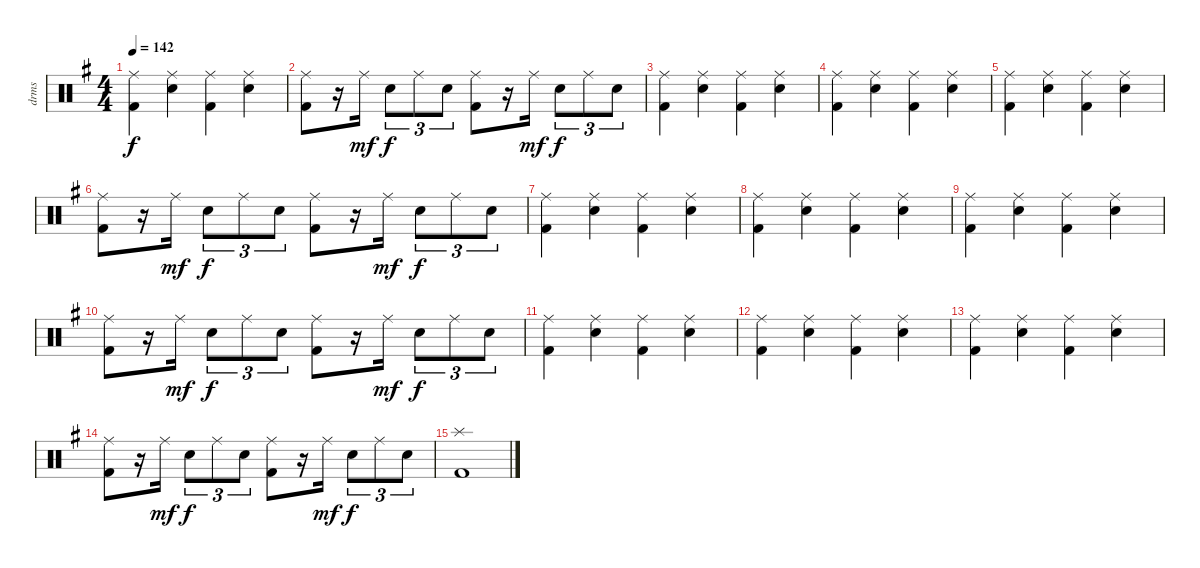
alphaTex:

\track ("drms" "drms") {instrument percussion}
\staff {score}
\articulation defaults
\ts (4 4)
\tempo 142
\clef neutral
\ks g
("Ride (middle)" "Kick (hit) 2").4{dy f} ("Ride (middle)" "Snare (hit) 2").4 ("Ride (middle)" "Kick (hit) 2").4 ("Ride (middle)" "Snare (hit) 2").4 |
("Ride (middle)" "Kick (hit) 2").8 r.16 "Ride (middle)".16{dy mf} "Snare (hit) 2".8{tu (3 2) dy f} "Ride (middle)".8{tu (3 2)} "Snare (hit) 2".8{tu (3 2)} ("Ride (middle)" "Kick (hit) 2").8 r.16 "Ride (middle)".16{dy mf} "Snare (hit) 2".8{tu (3 2) dy f} "Ride (middle)".8{tu (3 2)} "Snare (hit) 2".8{tu (3 2)} |
("Ride (middle)" "Kick (hit) 2").4 ("Ride (middle)" "Snare (hit) 2").4 ("Ride (middle)" "Kick (hit) 2").4 ("Ride (middle)" "Snare (hit) 2").4 |
("Ride (middle)" "Kick (hit) 2").4 ("Ride (middle)" "Snare (hit) 2").4 ("Ride (middle)" "Kick (hit) 2").4 ("Ride (middle)" "Snare (hit) 2").4 |
("Ride (middle)" "Kick (hit) 2").4 ("Ride (middle)" "Snare (hit) 2").4 ("Ride (middle)" "Kick (hit) 2").4 ("Ride (middle)" "Snare (hit) 2").4 |
("Ride (middle)" "Kick (hit) 2").8 r.16 "Ride (middle)".16{dy mf} "Snare (hit) 2".8{tu (3 2) dy f} "Ride (middle)".8{tu (3 2)} "Snare (hit) 2".8{tu (3 2)} ("Ride (middle)" "Kick (hit) 2").8 r.16 "Ride (middle)".16{dy mf} "Snare (hit) 2".8{tu (3 2) dy f} "Ride (middle)".8{tu (3 2)} "Snare (hit) 2".8{tu (3 2)} |
("Ride (middle)" "Kick (hit) 2").4 ("Ride (middle)" "Snare (hit) 2").4 ("Ride (middle)" "Kick (hit) 2").4 ("Ride (middle)" "Snare (hit) 2").4 |
("Ride (middle)" "Kick (hit) 2").4 ("Ride (middle)" "Snare (hit) 2").4 ("Ride (middle)" "Kick (hit) 2").4 ("Ride (middle)" "Snare (hit) 2").4 |
("Ride (middle)" "Kick (hit) 2").4 ("Ride (middle)" "Snare (hit) 2").4 ("Ride (middle)" "Kick (hit) 2").4 ("Ride (middle)" "Snare (hit) 2").4 |
("Ride (middle)" "Kick (hit) 2").8 r.16 "Ride (middle)".16{dy mf} "Snare (hit) 2".8{tu (3 2) dy f} "Ride (middle)".8{tu (3 2)} "Snare (hit) 2".8{tu (3 2)} ("Ride (middle)" "Kick (hit) 2").8 r.16 "Ride (middle)".16{dy mf} "Snare (hit) 2".8{tu (3 2) dy f} "Ride (middle)".8{tu (3 2)} "Snare (hit) 2".8{tu (3 2)} |
("Ride (middle)" "Kick (hit) 2").4 ("Ride (middle)" "Snare (hit) 2").4 ("Ride (middle)" "Kick (hit) 2").4 ("Ride (middle)" "Snare (hit) 2").4 |
("Ride (middle)" "Kick (hit) 2").4 ("Ride (middle)" "Snare (hit) 2").4 ("Ride (middle)" "Kick (hit) 2").4 ("Ride (middle)" "Snare (hit) 2").4 |
("Ride (middle)" "Kick (hit) 2").4 ("Ride (middle)" "Snare (hit) 2").4 ("Ride (middle)" "Kick (hit) 2").4 ("Ride (middle)" "Snare (hit) 2").4 |
("Ride (middle)" "Kick (hit) 2").8 r.16 "Ride (middle)".16{dy mf} "Snare (hit) 2".8{tu (3 2) dy f} "Ride (middle)".8{tu (3 2)} "Snare (hit) 2".8{tu (3 2)} ("Ride (middle)" "Kick (hit) 2").8 r.16 "Ride (middle)".16{dy mf} "Snare (hit) 2".8{tu (3 2) dy f} "Ride (middle)".8{tu (3 2)} "Snare (hit) 2".8{tu (3 2)} |
("Splash (hit)" "Kick (hit) 2").1
